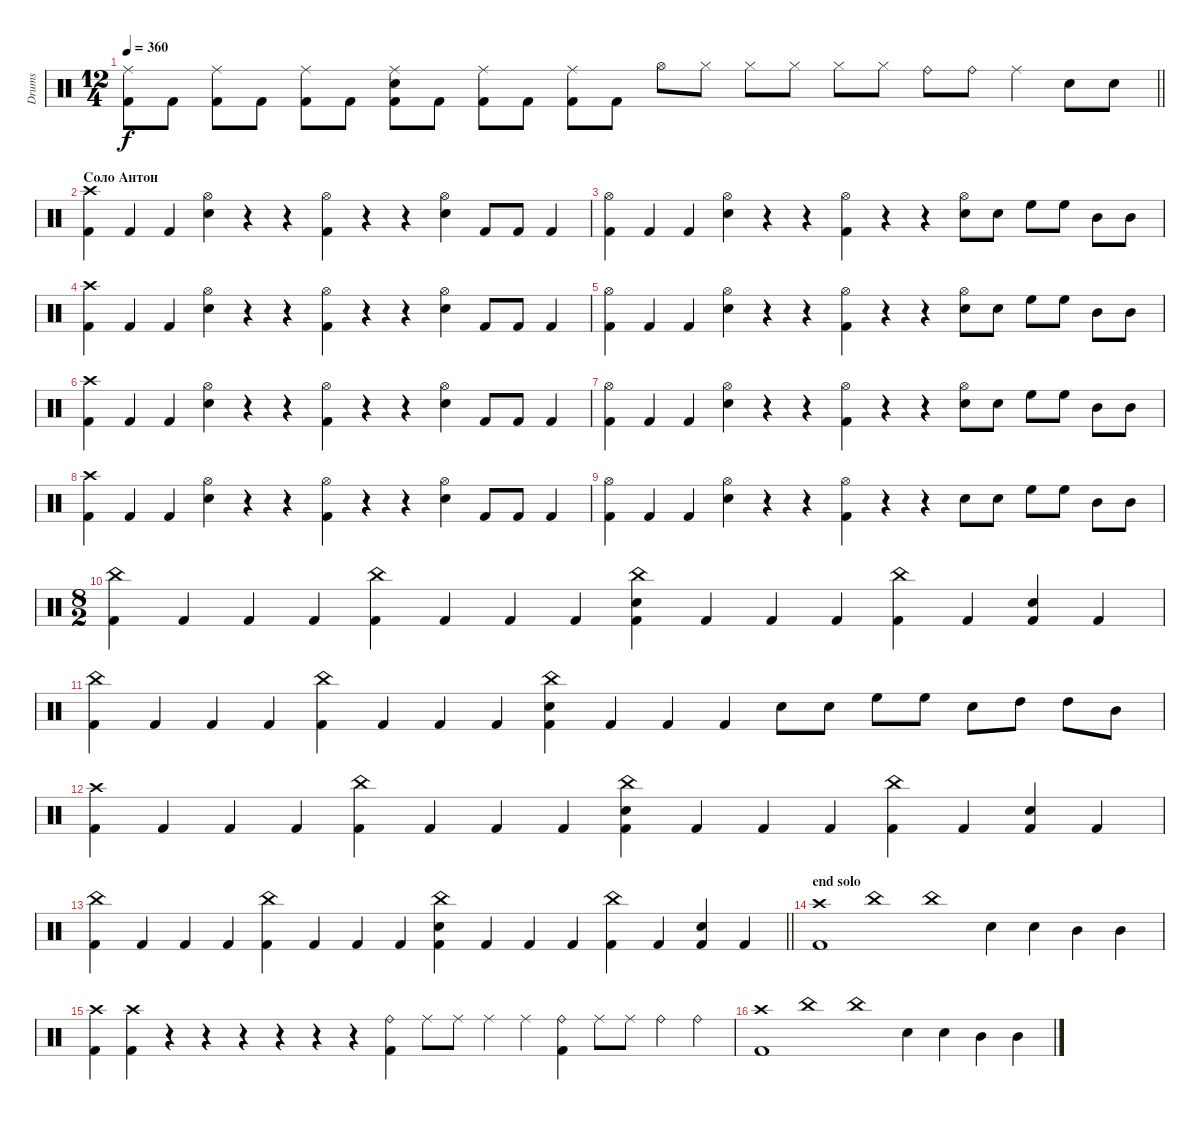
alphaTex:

\track ("Drums" "Drums") {mute instrument percussion}
\staff {score}
\articulation defaults
\ts (12 4)
\tempo 360
\clef neutral
\barLineRight lightlight
\ks c
("Ride (middle)" "Kick (hit) 2").8{dy f} "Kick (hit) 2".8 ("Ride (middle)" "Kick (hit) 2").8 "Kick (hit) 2".8 ("Ride (middle)" "Kick (hit) 2").8 "Kick (hit) 2".8 ("Ride (middle)" "Kick (hit) 2" "Snare (hit) 2").8 "Kick (hit) 2".8 ("Ride (middle)" "Kick (hit) 2").8 "Kick (hit) 2".8 ("Ride (middle)" "Kick (hit) 2").8 "Kick (hit) 2".8 "Hi-Hat (open)".8 "Hi-Hat (closed)".8 "Hi-Hat (closed)".8 "Hi-Hat (closed)".8 "Hi-Hat (closed)".8 "Hi-Hat (closed)".8 "Ride (bell)".8 "Ride (bell)".8 "Ride (middle)".4 "Snare (hit) 2".8 "Snare (hit) 2".8 |
\section ("" "Соло Антон")
("Crash high (hit)" "Kick (hit) 2").4 "Kick (hit) 2".4 "Kick (hit) 2".4 ("Hi-Hat (open)" "Snare (hit) 2").4 r.4 r.4 ("Hi-Hat (open)" "Kick (hit) 2").4 r.4 r.4 ("Hi-Hat (open)" "Snare (hit) 2").4 "Kick (hit) 2".8 "Kick (hit) 2".8 "Kick (hit) 2".4 |
("Hi-Hat (open)" "Kick (hit) 2").4 "Kick (hit) 2".4 "Kick (hit) 2".4 ("Hi-Hat (open)" "Snare (hit) 2").4 r.4 r.4 ("Hi-Hat (open)" "Kick (hit) 2").4 r.4 r.4 ("Hi-Hat (open)" "Snare (hit) 2").8 "Snare (hit) 2".8 "High Floor Tom (hit)".8 "High Floor Tom (hit)".8 "Mid Tom (hit)".8 "Mid Tom (hit)".8 |
("Crash high (hit)" "Kick (hit) 2").4 "Kick (hit) 2".4 "Kick (hit) 2".4 ("Hi-Hat (open)" "Snare (hit) 2").4 r.4 r.4 ("Hi-Hat (open)" "Kick (hit) 2").4 r.4 r.4 ("Hi-Hat (open)" "Snare (hit) 2").4 "Kick (hit) 2".8 "Kick (hit) 2".8 "Kick (hit) 2".4 |
("Hi-Hat (open)" "Kick (hit) 2").4 "Kick (hit) 2".4 "Kick (hit) 2".4 ("Hi-Hat (open)" "Snare (hit) 2").4 r.4 r.4 ("Hi-Hat (open)" "Kick (hit) 2").4 r.4 r.4 ("Hi-Hat (open)" "Snare (hit) 2").8 "Snare (hit) 2".8 "High Floor Tom (hit)".8 "High Floor Tom (hit)".8 "Mid Tom (hit)".8 "Mid Tom (hit)".8 |
("Crash high (hit)" "Kick (hit) 2").4 "Kick (hit) 2".4 "Kick (hit) 2".4 ("Hi-Hat (open)" "Snare (hit) 2").4 r.4 r.4 ("Hi-Hat (open)" "Kick (hit) 2").4 r.4 r.4 ("Hi-Hat (open)" "Snare (hit) 2").4 "Kick (hit) 2".8 "Kick (hit) 2".8 "Kick (hit) 2".4 |
("Hi-Hat (open)" "Kick (hit) 2").4 "Kick (hit) 2".4 "Kick (hit) 2".4 ("Hi-Hat (open)" "Snare (hit) 2").4 r.4 r.4 ("Hi-Hat (open)" "Kick (hit) 2").4 r.4 r.4 ("Hi-Hat (open)" "Snare (hit) 2").8 "Snare (hit) 2".8 "High Floor Tom (hit)".8 "High Floor Tom (hit)".8 "Mid Tom (hit)".8 "Mid Tom (hit)".8 |
("Crash high (hit)" "Kick (hit) 2").4 "Kick (hit) 2".4 "Kick (hit) 2".4 ("Hi-Hat (open)" "Snare (hit) 2").4 r.4 r.4 ("Hi-Hat (open)" "Kick (hit) 2").4 r.4 r.4 ("Hi-Hat (open)" "Snare (hit) 2").4 "Kick (hit) 2".8 "Kick (hit) 2".8 "Kick (hit) 2".4 |
("Hi-Hat (open)" "Kick (hit) 2").4 "Kick (hit) 2".4 "Kick (hit) 2".4 ("Hi-Hat (open)" "Snare (hit) 2").4 r.4 r.4 ("Hi-Hat (open)" "Kick (hit) 2").4 r.4 r.4 "Snare (hit) 2".8 "Snare (hit) 2".8 "High Floor Tom (hit)".8 "High Floor Tom (hit)".8 "Mid Tom (hit)".8 "Mid Tom (hit)".8 |
\ts (8 2)
("Kick (hit) 2" "China (hit)").4 "Kick (hit) 2".4 "Kick (hit) 2".4 "Kick (hit) 2".4 ("Kick (hit) 2" "China (hit)").4 "Kick (hit) 2".4 "Kick (hit) 2".4 "Kick (hit) 2".4 ("Kick (hit) 2" "Snare (hit) 2" "China (hit)").4 "Kick (hit) 2".4 "Kick (hit) 2".4 "Kick (hit) 2".4 ("Kick (hit) 2" "China (hit)").4 "Kick (hit) 2".4 ("Kick (hit) 2" "Snare (hit) 2").4 "Kick (hit) 2".4 |
("Kick (hit) 2" "China (hit)").4 "Kick (hit) 2".4 "Kick (hit) 2".4 "Kick (hit) 2".4 ("Kick (hit) 2" "China (hit)").4 "Kick (hit) 2".4 "Kick (hit) 2".4 "Kick (hit) 2".4 ("Kick (hit) 2" "Snare (hit) 2" "China (hit)").4 "Kick (hit) 2".4 "Kick (hit) 2".4 "Kick (hit) 2".4 "Snare (hit) 2".8 "Snare (hit) 2".8 "High Floor Tom (hit)".8 "High Floor Tom (hit)".8 "Snare (hit) 2".8 "High Tom (hit)".8 "High Tom (hit)".8 "Mid Tom (hit)".8 |
("Kick (hit) 2" "Crash high (hit)").4 "Kick (hit) 2".4 "Kick (hit) 2".4 "Kick (hit) 2".4 ("Kick (hit) 2" "China (hit)").4 "Kick (hit) 2".4 "Kick (hit) 2".4 "Kick (hit) 2".4 ("Kick (hit) 2" "Snare (hit) 2" "China (hit)").4 "Kick (hit) 2".4 "Kick (hit) 2".4 "Kick (hit) 2".4 ("Kick (hit) 2" "China (hit)").4 "Kick (hit) 2".4 ("Kick (hit) 2" "Snare (hit) 2").4 "Kick (hit) 2".4 |
\barLineRight lightlight
("Kick (hit) 2" "China (hit)").4 "Kick (hit) 2".4 "Kick (hit) 2".4 "Kick (hit) 2".4 ("Kick (hit) 2" "China (hit)").4 "Kick (hit) 2".4 "Kick (hit) 2".4 "Kick (hit) 2".4 ("Kick (hit) 2" "Snare (hit) 2" "China (hit)").4 "Kick (hit) 2".4 "Kick (hit) 2".4 "Kick (hit) 2".4 ("Kick (hit) 2" "China (hit)").4 "Kick (hit) 2".4 ("Kick (hit) 2" "Snare (hit) 2").4 "Kick (hit) 2".4 |
\section ("" "end solo")
("Crash high (hit)" "Kick (hit) 2").1 "China (hit)".1 "China (hit)".1 "Snare (hit) 2".4 "Snare (hit) 2".4 "Mid Tom (hit)".4 "Mid Tom (hit)".4 |
("Crash high (hit)" "Kick (hit) 2").4 ("Crash high (hit)" "Kick (hit) 2").4 r.4 r.4 r.4 r.4 r.4 r.4 ("Ride (bell)" "Kick (hit) 2").4 "Ride (middle)".8 "Ride (middle)".8 "Ride (middle)".4 "Ride (middle)".4 ("Ride (bell)" "Kick (hit) 2").4 "Ride (middle)".8 "Ride (middle)".8 "Ride (bell)".4 "Ride (bell)".4 |
("Crash high (hit)" "Kick (hit) 2").1 "China (hit)".1 "China (hit)".1 "Snare (hit) 2".4 "Snare (hit) 2".4 "Mid Tom (hit)".4 "Mid Tom (hit)".4
